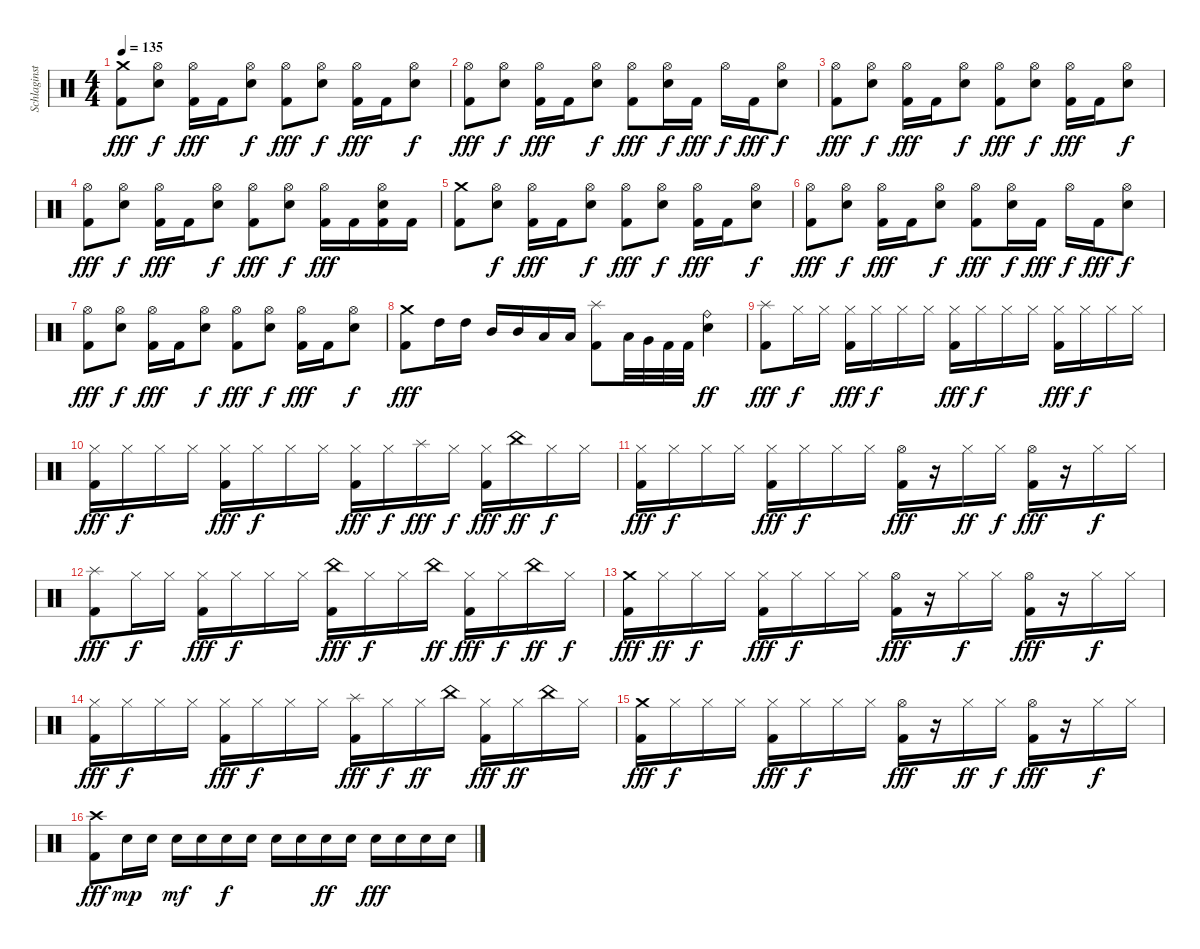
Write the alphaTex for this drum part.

\track ("Schlaginstrumente - Auswahl" "Schlaginst") {instrument percussion}
\staff {score}
\articulation defaults
\ts (4 4)
\tempo 135
\clef neutral
\ks c
("Crash medium (hit)" "Kick (hit) 2").8{dy fff} ("Hi-Hat (open)" "Snare (hit) 2").8{dy f} ("Hi-Hat (open)" "Kick (hit) 2").16{dy fff} "Kick (hit) 2".16 ("Hi-Hat (open)" "Snare (hit) 2").8{dy f} ("Hi-Hat (open)" "Kick (hit) 2").8{dy fff} ("Hi-Hat (open)" "Snare (hit) 2").8{dy f} ("Hi-Hat (open)" "Kick (hit) 2").16{dy fff} "Kick (hit) 2".16 ("Hi-Hat (open)" "Snare (hit) 2").8{dy f} |
("Hi-Hat (open)" "Kick (hit) 2").8{dy fff} ("Hi-Hat (open)" "Snare (hit) 2").8{dy f} ("Hi-Hat (open)" "Kick (hit) 2").16{dy fff} "Kick (hit) 2".16 ("Hi-Hat (open)" "Snare (hit) 2").8{dy f} ("Hi-Hat (open)" "Kick (hit) 2").8{dy fff} ("Hi-Hat (open)" "Snare (hit) 2").16{dy f} "Kick (hit) 2".16{dy fff} "Hi-Hat (open)".16{dy f} "Kick (hit) 2".16{dy fff} ("Hi-Hat (open)" "Snare (hit) 2").8{dy f} |
("Hi-Hat (open)" "Kick (hit) 2").8{dy fff} ("Hi-Hat (open)" "Snare (hit) 2").8{dy f} ("Hi-Hat (open)" "Kick (hit) 2").16{dy fff} "Kick (hit) 2".16 ("Hi-Hat (open)" "Snare (hit) 2").8{dy f} ("Hi-Hat (open)" "Kick (hit) 2").8{dy fff} ("Hi-Hat (open)" "Snare (hit) 2").8{dy f} ("Hi-Hat (open)" "Kick (hit) 2").16{dy fff} "Kick (hit) 2".16 ("Hi-Hat (open)" "Snare (hit) 2").8{dy f} |
("Hi-Hat (open)" "Kick (hit) 2").8{dy fff} ("Hi-Hat (open)" "Snare (hit) 2").8{dy f} ("Hi-Hat (open)" "Kick (hit) 2").16{dy fff} "Kick (hit) 2".16 ("Hi-Hat (open)" "Snare (hit) 2").8{dy f} ("Hi-Hat (open)" "Kick (hit) 2").8{dy fff} ("Hi-Hat (open)" "Snare (hit) 2").8{dy f} ("Hi-Hat (open)" "Kick (hit) 2").16{dy fff} "Kick (hit) 2".16 ("Hi-Hat (open)" "Snare (hit) 2" "Kick (hit) 2").16 "Kick (hit) 2".16 |
("Crash medium (hit)" "Kick (hit) 2").8 ("Hi-Hat (open)" "Snare (hit) 2").8{dy f} ("Hi-Hat (open)" "Kick (hit) 2").16{dy fff} "Kick (hit) 2".16 ("Hi-Hat (open)" "Snare (hit) 2").8{dy f} ("Hi-Hat (open)" "Kick (hit) 2").8{dy fff} ("Hi-Hat (open)" "Snare (hit) 2").8{dy f} ("Hi-Hat (open)" "Kick (hit) 2").16{dy fff} "Kick (hit) 2".16 ("Hi-Hat (open)" "Snare (hit) 2").8{dy f} |
("Hi-Hat (open)" "Kick (hit) 2").8{dy fff} ("Hi-Hat (open)" "Snare (hit) 2").8{dy f} ("Hi-Hat (open)" "Kick (hit) 2").16{dy fff} "Kick (hit) 2".16 ("Hi-Hat (open)" "Snare (hit) 2").8{dy f} ("Hi-Hat (open)" "Kick (hit) 2").8{dy fff} ("Hi-Hat (open)" "Snare (hit) 2").16{dy f} "Kick (hit) 2".16{dy fff} "Hi-Hat (open)".16{dy f} "Kick (hit) 2".16{dy fff} ("Hi-Hat (open)" "Snare (hit) 2").8{dy f} |
("Hi-Hat (open)" "Kick (hit) 2").8{dy fff} ("Hi-Hat (open)" "Snare (hit) 2").8{dy f} ("Hi-Hat (open)" "Kick (hit) 2").16{dy fff} "Kick (hit) 2".16 ("Hi-Hat (open)" "Snare (hit) 2").8{dy f} ("Hi-Hat (open)" "Kick (hit) 2").8{dy fff} ("Hi-Hat (open)" "Snare (hit) 2").8{dy f} ("Hi-Hat (open)" "Kick (hit) 2").16{dy fff} "Kick (hit) 2".16 ("Hi-Hat (open)" "Snare (hit) 2").8{dy f} |
("Crash medium (hit)" "Kick (hit) 2").8{dy fff} "High Tom (hit)".16 "High Tom (hit)".16 "Mid Tom (hit)".16 "Mid Tom (hit)".16 "Low Tom (hit)".16 "Low Tom (hit)".16 ("Splash (hit)" "Kick (hit) 2").8 "Low Floor Tom (hit)".32 "Very Low Tom (hit)".32 "Kick (hit) 2".32 "Kick (hit) 2".32 ("Ride (bell)" "Snare (hit) 2").4{dy ff} |
("Splash (hit)" "Kick (hit) 2").8{dy fff} "Hi-Hat (closed)".16{dy f} "Hi-Hat (closed)".16 ("Hi-Hat (closed)" "Kick (hit) 2").16{dy fff} "Hi-Hat (closed)".16{dy f} "Hi-Hat (closed)".16 "Hi-Hat (closed)".16 ("Hi-Hat (closed)" "Kick (hit) 2").16{dy fff} "Hi-Hat (closed)".16{dy f} "Hi-Hat (closed)".16 "Hi-Hat (closed)".16 ("Hi-Hat (closed)" "Kick (hit) 2").16{dy fff} "Hi-Hat (closed)".16{dy f} "Hi-Hat (closed)".16 "Hi-Hat (closed)".16 |
("Hi-Hat (closed)" "Kick (hit) 2").16{dy fff} "Hi-Hat (closed)".16{dy f} "Hi-Hat (closed)".16 "Hi-Hat (closed)".16 ("Hi-Hat (closed)" "Kick (hit) 2").16{dy fff} "Hi-Hat (closed)".16{dy f} "Hi-Hat (closed)".16 "Hi-Hat (closed)".16 ("Hi-Hat (closed)" "Kick (hit) 2").16{dy fff} "Hi-Hat (closed)".16{dy f} "Splash (hit)".16{dy fff} "Hi-Hat (closed)".16{dy f} ("Hi-Hat (closed)" "Kick (hit) 2").16{dy fff} "China (hit)".16{dy ff} "Hi-Hat (closed)".16{dy f} "Hi-Hat (closed)".16 |
("Hi-Hat (closed)" "Kick (hit) 2").16{dy fff} "Hi-Hat (closed)".16{dy f} "Hi-Hat (closed)".16 "Hi-Hat (closed)".16 ("Hi-Hat (closed)" "Kick (hit) 2").16{dy fff} "Hi-Hat (closed)".16{dy f} "Hi-Hat (closed)".16 "Hi-Hat (closed)".16 ("Hi-Hat (open)" "Kick (hit) 2").16{dy fff} r.16 "Hi-Hat (closed)".16{dy ff} "Hi-Hat (closed)".16{dy f} ("Hi-Hat (open)" "Kick (hit) 2").16{dy fff} r.16 "Hi-Hat (closed)".16{dy f} "Hi-Hat (closed)".16 |
("Splash (hit)" "Kick (hit) 2").8{dy fff} "Hi-Hat (closed)".16{dy f} "Hi-Hat (closed)".16 ("Hi-Hat (closed)" "Kick (hit) 2").16{dy fff} "Hi-Hat (closed)".16{dy f} "Hi-Hat (closed)".16 "Hi-Hat (closed)".16 ("China (hit)" "Kick (hit) 2").16{dy fff} "Hi-Hat (closed)".16{dy f} "Hi-Hat (closed)".16 "China (hit)".16{dy ff} ("Hi-Hat (closed)" "Kick (hit) 2").16{dy fff} "Hi-Hat (closed)".16{dy f} "China (hit)".16{dy ff} "Hi-Hat (closed)".16{dy f} |
("Crash medium (hit)" "Kick (hit) 2").16{dy fff} "Hi-Hat (closed)".16{dy ff} "Hi-Hat (closed)".16{dy f} "Hi-Hat (closed)".16 ("Hi-Hat (closed)" "Kick (hit) 2").16{dy fff} "Hi-Hat (closed)".16{dy f} "Hi-Hat (closed)".16 "Hi-Hat (closed)".16 ("Hi-Hat (open)" "Kick (hit) 2").16{dy fff} r.16 "Hi-Hat (closed)".16{dy f} "Hi-Hat (closed)".16 ("Hi-Hat (open)" "Kick (hit) 2").16{dy fff} r.16 "Hi-Hat (closed)".16{dy f} "Hi-Hat (closed)".16 |
("Hi-Hat (closed)" "Kick (hit) 2").16{dy fff} "Hi-Hat (closed)".16{dy f} "Hi-Hat (closed)".16 "Hi-Hat (closed)".16 ("Hi-Hat (closed)" "Kick (hit) 2").16{dy fff} "Hi-Hat (closed)".16{dy f} "Hi-Hat (closed)".16 "Hi-Hat (closed)".16 ("Splash (hit)" "Kick (hit) 2").16{dy fff} "Hi-Hat (closed)".16{dy f} "Hi-Hat (closed)".16{dy ff} "China (hit)".16 ("Hi-Hat (closed)" "Kick (hit) 2").16{dy fff} "Hi-Hat (closed)".16{dy ff} "China (hit)".16 "Hi-Hat (closed)".16 |
("Crash medium (hit)" "Kick (hit) 2").16{dy fff} "Hi-Hat (closed)".16{dy f} "Hi-Hat (closed)".16 "Hi-Hat (closed)".16 ("Hi-Hat (closed)" "Kick (hit) 2").16{dy fff} "Hi-Hat (closed)".16{dy f} "Hi-Hat (closed)".16 "Hi-Hat (closed)".16 ("Hi-Hat (open)" "Kick (hit) 2").16{dy fff} r.16 "Hi-Hat (closed)".16{dy ff} "Hi-Hat (closed)".16{dy f} ("Hi-Hat (open)" "Kick (hit) 2").16{dy fff} r.16 "Hi-Hat (closed)".16{dy f} "Hi-Hat (closed)".16 |
("Crash high (hit)" "Kick (hit) 2").8{dy fff} "Snare (hit) 2".16{dy mp} "Snare (hit) 2".16 "Snare (hit) 2".16{dy mf} "Snare (hit) 2".16 "Snare (hit) 2".16{dy f} "Snare (hit) 2".16 "Snare (hit) 2".16 "Snare (hit) 2".16 "Snare (hit) 2".16{dy ff} "Snare (hit) 2".16 "Snare (hit) 2".16{dy fff} "Snare (hit) 2".16 "Snare (hit) 2".16 "Snare (hit) 2".16
